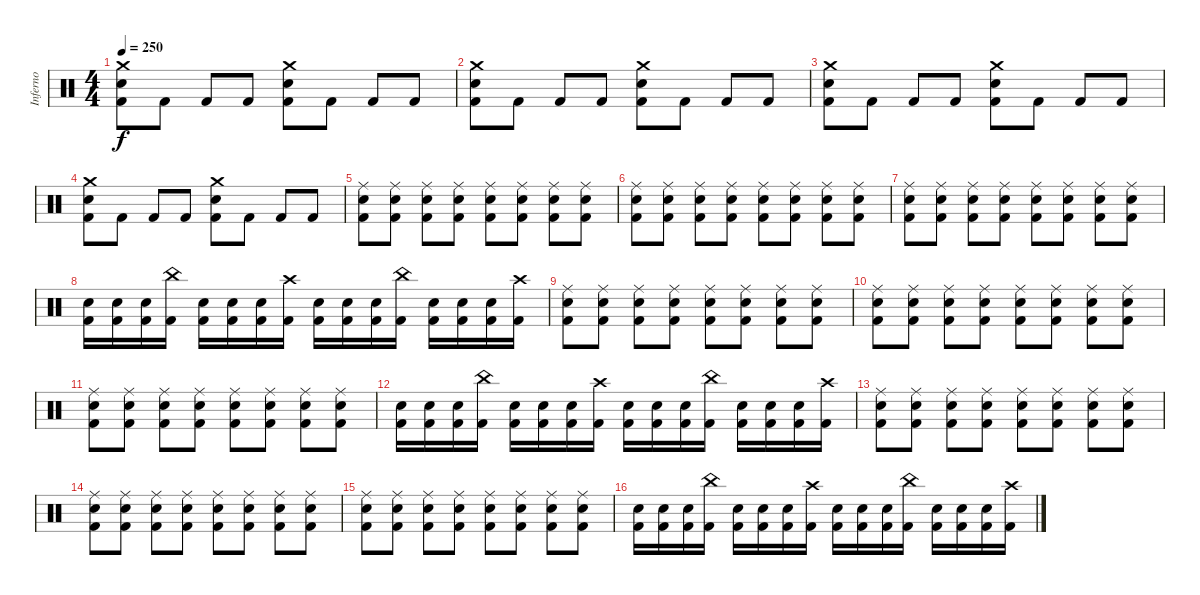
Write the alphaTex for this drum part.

\track ("Inferno" "Inferno") {instrument percussion}
\staff {score}
\articulation defaults
\ts (4 4)
\tempo 250
\clef neutral
\ks c
("Crash medium (hit)" "Electric Snare (hit)" "Kick (hit) 2").8{dy f} "Kick (hit) 2".8 "Kick (hit) 2".8 "Kick (hit) 2".8 ("Crash medium (hit)" "Electric Snare (hit)" "Kick (hit) 2").8 "Kick (hit) 2".8 "Kick (hit) 2".8 "Kick (hit) 2".8 |
("Crash medium (hit)" "Electric Snare (hit)" "Kick (hit) 2").8 "Kick (hit) 2".8 "Kick (hit) 2".8 "Kick (hit) 2".8 ("Crash medium (hit)" "Electric Snare (hit)" "Kick (hit) 2").8 "Kick (hit) 2".8 "Kick (hit) 2".8 "Kick (hit) 2".8 |
("Crash medium (hit)" "Electric Snare (hit)" "Kick (hit) 2").8 "Kick (hit) 2".8 "Kick (hit) 2".8 "Kick (hit) 2".8 ("Crash medium (hit)" "Electric Snare (hit)" "Kick (hit) 2").8 "Kick (hit) 2".8 "Kick (hit) 2".8 "Kick (hit) 2".8 |
("Crash medium (hit)" "Electric Snare (hit)" "Kick (hit) 2").8 "Kick (hit) 2".8 "Kick (hit) 2".8 "Kick (hit) 2".8 ("Crash medium (hit)" "Electric Snare (hit)" "Kick (hit) 2").8 "Kick (hit) 2".8 "Kick (hit) 2".8 "Kick (hit) 2".8 |
("Ride (middle)" "Electric Snare (hit)" "Kick (hit) 2").8 ("Ride (middle)" "Electric Snare (hit)" "Kick (hit) 2").8 ("Ride (middle)" "Electric Snare (hit)" "Kick (hit) 2").8 ("Ride (middle)" "Electric Snare (hit)" "Kick (hit) 2").8 ("Ride (middle)" "Electric Snare (hit)" "Kick (hit) 2").8 ("Ride (middle)" "Electric Snare (hit)" "Kick (hit) 2").8 ("Ride (middle)" "Electric Snare (hit)" "Kick (hit) 2").8 ("Ride (middle)" "Electric Snare (hit)" "Kick (hit) 2").8 |
("Ride (middle)" "Electric Snare (hit)" "Kick (hit) 2").8 ("Ride (middle)" "Electric Snare (hit)" "Kick (hit) 2").8 ("Ride (middle)" "Electric Snare (hit)" "Kick (hit) 2").8 ("Ride (middle)" "Electric Snare (hit)" "Kick (hit) 2").8 ("Ride (middle)" "Electric Snare (hit)" "Kick (hit) 2").8 ("Ride (middle)" "Electric Snare (hit)" "Kick (hit) 2").8 ("Ride (middle)" "Electric Snare (hit)" "Kick (hit) 2").8 ("Ride (middle)" "Electric Snare (hit)" "Kick (hit) 2").8 |
("Ride (middle)" "Electric Snare (hit)" "Kick (hit) 2").8 ("Ride (middle)" "Electric Snare (hit)" "Kick (hit) 2").8 ("Ride (middle)" "Electric Snare (hit)" "Kick (hit) 2").8 ("Ride (middle)" "Electric Snare (hit)" "Kick (hit) 2").8 ("Ride (middle)" "Electric Snare (hit)" "Kick (hit) 2").8 ("Ride (middle)" "Electric Snare (hit)" "Kick (hit) 2").8 ("Ride (middle)" "Electric Snare (hit)" "Kick (hit) 2").8 ("Ride (middle)" "Electric Snare (hit)" "Kick (hit) 2").8 |
("Electric Snare (hit)" "Kick (hit) 2").16 ("Electric Snare (hit)" "Kick (hit) 2").16 ("Electric Snare (hit)" "Kick (hit) 2").16 ("China (hit)" "Kick (hit) 2").16 ("Electric Snare (hit)" "Kick (hit) 2").16 ("Electric Snare (hit)" "Kick (hit) 2").16 ("Electric Snare (hit)" "Kick (hit) 2").16 ("Crash high (hit)" "Kick (hit) 2").16 ("Electric Snare (hit)" "Kick (hit) 2").16 ("Electric Snare (hit)" "Kick (hit) 2").16 ("Electric Snare (hit)" "Kick (hit) 2").16 ("China (hit)" "Kick (hit) 2").16 ("Electric Snare (hit)" "Kick (hit) 2").16 ("Electric Snare (hit)" "Kick (hit) 2").16 ("Electric Snare (hit)" "Kick (hit) 2").16 ("Crash high (hit)" "Kick (hit) 2").16 |
("Ride (middle)" "Electric Snare (hit)" "Kick (hit) 2").8 ("Ride (middle)" "Electric Snare (hit)" "Kick (hit) 2").8 ("Ride (middle)" "Electric Snare (hit)" "Kick (hit) 2").8 ("Ride (middle)" "Electric Snare (hit)" "Kick (hit) 2").8 ("Ride (middle)" "Electric Snare (hit)" "Kick (hit) 2").8 ("Ride (middle)" "Electric Snare (hit)" "Kick (hit) 2").8 ("Ride (middle)" "Electric Snare (hit)" "Kick (hit) 2").8 ("Ride (middle)" "Electric Snare (hit)" "Kick (hit) 2").8 |
("Ride (middle)" "Electric Snare (hit)" "Kick (hit) 2").8 ("Ride (middle)" "Electric Snare (hit)" "Kick (hit) 2").8 ("Ride (middle)" "Electric Snare (hit)" "Kick (hit) 2").8 ("Ride (middle)" "Electric Snare (hit)" "Kick (hit) 2").8 ("Ride (middle)" "Electric Snare (hit)" "Kick (hit) 2").8 ("Ride (middle)" "Electric Snare (hit)" "Kick (hit) 2").8 ("Ride (middle)" "Electric Snare (hit)" "Kick (hit) 2").8 ("Ride (middle)" "Electric Snare (hit)" "Kick (hit) 2").8 |
("Ride (middle)" "Electric Snare (hit)" "Kick (hit) 2").8 ("Ride (middle)" "Electric Snare (hit)" "Kick (hit) 2").8 ("Ride (middle)" "Electric Snare (hit)" "Kick (hit) 2").8 ("Ride (middle)" "Electric Snare (hit)" "Kick (hit) 2").8 ("Ride (middle)" "Electric Snare (hit)" "Kick (hit) 2").8 ("Ride (middle)" "Electric Snare (hit)" "Kick (hit) 2").8 ("Ride (middle)" "Electric Snare (hit)" "Kick (hit) 2").8 ("Ride (middle)" "Electric Snare (hit)" "Kick (hit) 2").8 |
("Electric Snare (hit)" "Kick (hit) 2").16 ("Electric Snare (hit)" "Kick (hit) 2").16 ("Electric Snare (hit)" "Kick (hit) 2").16 ("China (hit)" "Kick (hit) 2").16 ("Electric Snare (hit)" "Kick (hit) 2").16 ("Electric Snare (hit)" "Kick (hit) 2").16 ("Electric Snare (hit)" "Kick (hit) 2").16 ("Crash high (hit)" "Kick (hit) 2").16 ("Electric Snare (hit)" "Kick (hit) 2").16 ("Electric Snare (hit)" "Kick (hit) 2").16 ("Electric Snare (hit)" "Kick (hit) 2").16 ("China (hit)" "Kick (hit) 2").16 ("Electric Snare (hit)" "Kick (hit) 2").16 ("Electric Snare (hit)" "Kick (hit) 2").16 ("Electric Snare (hit)" "Kick (hit) 2").16 ("Crash high (hit)" "Kick (hit) 2").16 |
("Ride (middle)" "Electric Snare (hit)" "Kick (hit) 2").8 ("Ride (middle)" "Electric Snare (hit)" "Kick (hit) 2").8 ("Ride (middle)" "Electric Snare (hit)" "Kick (hit) 2").8 ("Ride (middle)" "Electric Snare (hit)" "Kick (hit) 2").8 ("Ride (middle)" "Electric Snare (hit)" "Kick (hit) 2").8 ("Ride (middle)" "Electric Snare (hit)" "Kick (hit) 2").8 ("Ride (middle)" "Electric Snare (hit)" "Kick (hit) 2").8 ("Ride (middle)" "Electric Snare (hit)" "Kick (hit) 2").8 |
("Ride (middle)" "Electric Snare (hit)" "Kick (hit) 2").8 ("Ride (middle)" "Electric Snare (hit)" "Kick (hit) 2").8 ("Ride (middle)" "Electric Snare (hit)" "Kick (hit) 2").8 ("Ride (middle)" "Electric Snare (hit)" "Kick (hit) 2").8 ("Ride (middle)" "Electric Snare (hit)" "Kick (hit) 2").8 ("Ride (middle)" "Electric Snare (hit)" "Kick (hit) 2").8 ("Ride (middle)" "Electric Snare (hit)" "Kick (hit) 2").8 ("Ride (middle)" "Electric Snare (hit)" "Kick (hit) 2").8 |
("Ride (middle)" "Electric Snare (hit)" "Kick (hit) 2").8 ("Ride (middle)" "Electric Snare (hit)" "Kick (hit) 2").8 ("Ride (middle)" "Electric Snare (hit)" "Kick (hit) 2").8 ("Ride (middle)" "Electric Snare (hit)" "Kick (hit) 2").8 ("Ride (middle)" "Electric Snare (hit)" "Kick (hit) 2").8 ("Ride (middle)" "Electric Snare (hit)" "Kick (hit) 2").8 ("Ride (middle)" "Electric Snare (hit)" "Kick (hit) 2").8 ("Ride (middle)" "Electric Snare (hit)" "Kick (hit) 2").8 |
("Electric Snare (hit)" "Kick (hit) 2").16 ("Electric Snare (hit)" "Kick (hit) 2").16 ("Electric Snare (hit)" "Kick (hit) 2").16 ("China (hit)" "Kick (hit) 2").16 ("Electric Snare (hit)" "Kick (hit) 2").16 ("Electric Snare (hit)" "Kick (hit) 2").16 ("Electric Snare (hit)" "Kick (hit) 2").16 ("Crash high (hit)" "Kick (hit) 2").16 ("Electric Snare (hit)" "Kick (hit) 2").16 ("Electric Snare (hit)" "Kick (hit) 2").16 ("Electric Snare (hit)" "Kick (hit) 2").16 ("China (hit)" "Kick (hit) 2").16 ("Electric Snare (hit)" "Kick (hit) 2").16 ("Electric Snare (hit)" "Kick (hit) 2").16 ("Electric Snare (hit)" "Kick (hit) 2").16 ("Crash high (hit)" "Kick (hit) 2").16
